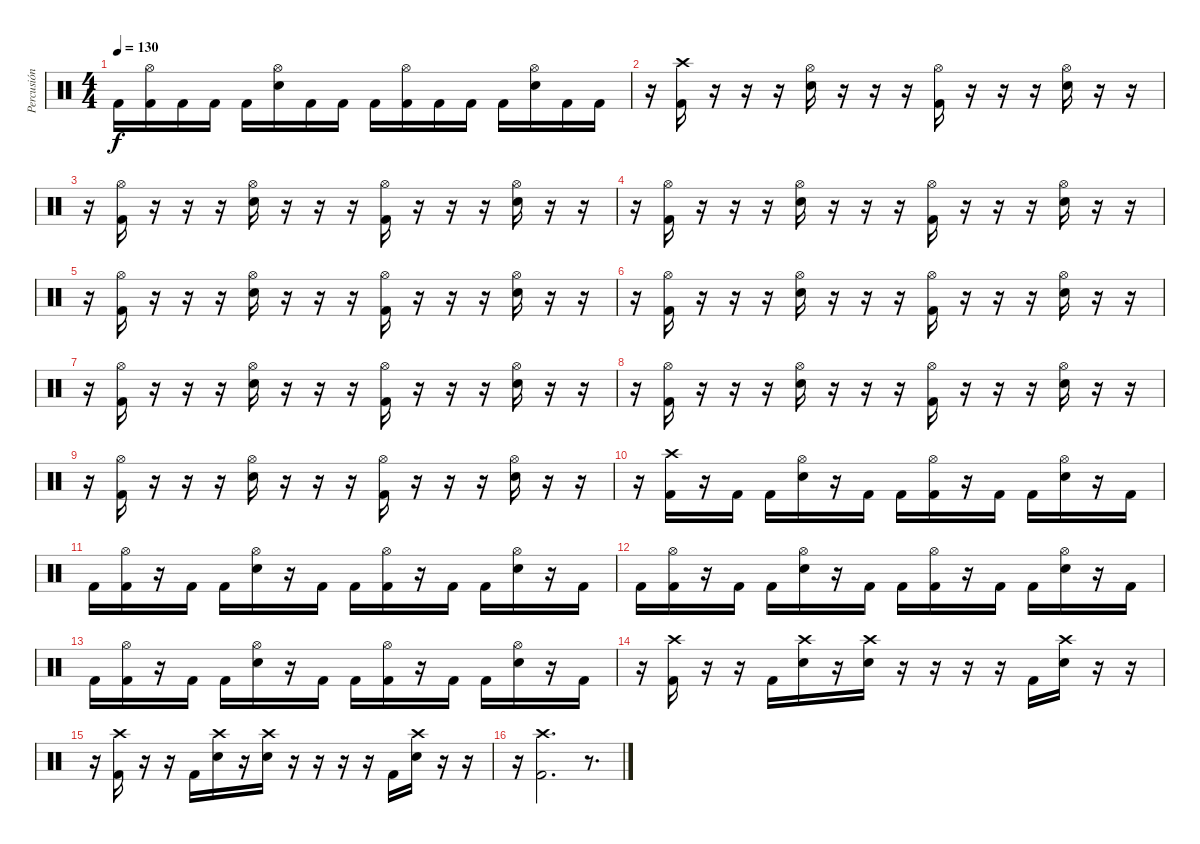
\track ("Percusión (opcional)" "Percusión ") {mute instrument percussion}
\staff {score}
\articulation defaults
\ts (4 4)
\tempo 130
\clef neutral
\ks c "Kick (hit) 2".16{dy f}
("Hi-Hat (open)" "Kick (hit) 2").16 "Kick (hit) 2".16 "Kick (hit) 2".16 "Kick (hit) 2".16 ("Hi-Hat (open)" "Electric Snare (hit)").16 "Kick (hit) 2".16 "Kick (hit) 2".16 "Kick (hit) 2".16 ("Hi-Hat (open)" "Kick (hit) 2").16 "Kick (hit) 2".16 "Kick (hit) 2".16 "Kick (hit) 2".16 ("Hi-Hat (open)" "Electric Snare (hit)").16 "Kick (hit) 2".16 "Kick (hit) 2".16 |
r.16 ("Crash high (hit)" "Kick (hit) 2").16 r.16 r.16 r.16 ("Hi-Hat (open)" "Electric Snare (hit)").16 r.16 r.16 r.16 ("Hi-Hat (open)" "Kick (hit) 2").16 r.16 r.16 r.16 ("Hi-Hat (open)" "Electric Snare (hit)").16 r.16 r.16 |
r.16 ("Hi-Hat (open)" "Kick (hit) 2").16 r.16 r.16 r.16 ("Hi-Hat (open)" "Electric Snare (hit)").16 r.16 r.16 r.16 ("Hi-Hat (open)" "Kick (hit) 2").16 r.16 r.16 r.16 ("Hi-Hat (open)" "Electric Snare (hit)").16 r.16 r.16 |
r.16 ("Hi-Hat (open)" "Kick (hit) 2").16 r.16 r.16 r.16 ("Hi-Hat (open)" "Electric Snare (hit)").16 r.16 r.16 r.16 ("Hi-Hat (open)" "Kick (hit) 2").16 r.16 r.16 r.16 ("Hi-Hat (open)" "Electric Snare (hit)").16 r.16 r.16 |
r.16 ("Hi-Hat (open)" "Kick (hit) 2").16 r.16 r.16 r.16 ("Hi-Hat (open)" "Electric Snare (hit)").16 r.16 r.16 r.16 ("Hi-Hat (open)" "Kick (hit) 2").16 r.16 r.16 r.16 ("Hi-Hat (open)" "Electric Snare (hit)").16 r.16 r.16 |
r.16 ("Hi-Hat (open)" "Kick (hit) 2").16 r.16 r.16 r.16 ("Hi-Hat (open)" "Electric Snare (hit)").16 r.16 r.16 r.16 ("Hi-Hat (open)" "Kick (hit) 2").16 r.16 r.16 r.16 ("Hi-Hat (open)" "Electric Snare (hit)").16 r.16 r.16 |
r.16 ("Hi-Hat (open)" "Kick (hit) 2").16 r.16 r.16 r.16 ("Hi-Hat (open)" "Electric Snare (hit)").16 r.16 r.16 r.16 ("Hi-Hat (open)" "Kick (hit) 2").16 r.16 r.16 r.16 ("Hi-Hat (open)" "Electric Snare (hit)").16 r.16 r.16 |
r.16 ("Hi-Hat (open)" "Kick (hit) 2").16 r.16 r.16 r.16 ("Hi-Hat (open)" "Electric Snare (hit)").16 r.16 r.16 r.16 ("Hi-Hat (open)" "Kick (hit) 2").16 r.16 r.16 r.16 ("Hi-Hat (open)" "Electric Snare (hit)").16 r.16 r.16 |
r.16 ("Hi-Hat (open)" "Kick (hit) 2").16 r.16 r.16 r.16 ("Hi-Hat (open)" "Electric Snare (hit)").16 r.16 r.16 r.16 ("Hi-Hat (open)" "Kick (hit) 2").16 r.16 r.16 r.16 ("Hi-Hat (open)" "Electric Snare (hit)").16 r.16 r.16 |
r.16 ("Crash high (hit)" "Kick (hit) 2").16 r.16 "Kick (hit) 2".16 "Kick (hit) 2".16 ("Hi-Hat (open)" "Electric Snare (hit)").16 r.16 "Kick (hit) 2".16 "Kick (hit) 2".16 ("Hi-Hat (open)" "Kick (hit) 2").16 r.16 "Kick (hit) 2".16 "Kick (hit) 2".16 ("Hi-Hat (open)" "Electric Snare (hit)").16 r.16 "Kick (hit) 2".16 |
"Kick (hit) 2".16 ("Hi-Hat (open)" "Kick (hit) 2").16 r.16 "Kick (hit) 2".16 "Kick (hit) 2".16 ("Hi-Hat (open)" "Electric Snare (hit)").16 r.16 "Kick (hit) 2".16 "Kick (hit) 2".16 ("Hi-Hat (open)" "Kick (hit) 2").16 r.16 "Kick (hit) 2".16 "Kick (hit) 2".16 ("Hi-Hat (open)" "Electric Snare (hit)").16 r.16 "Kick (hit) 2".16 |
"Kick (hit) 2".16 ("Hi-Hat (open)" "Kick (hit) 2").16 r.16 "Kick (hit) 2".16 "Kick (hit) 2".16 ("Hi-Hat (open)" "Electric Snare (hit)").16 r.16 "Kick (hit) 2".16 "Kick (hit) 2".16 ("Hi-Hat (open)" "Kick (hit) 2").16 r.16 "Kick (hit) 2".16 "Kick (hit) 2".16 ("Hi-Hat (open)" "Electric Snare (hit)").16 r.16 "Kick (hit) 2".16 |
"Kick (hit) 2".16 ("Hi-Hat (open)" "Kick (hit) 2").16 r.16 "Kick (hit) 2".16 "Kick (hit) 2".16 ("Hi-Hat (open)" "Electric Snare (hit)").16 r.16 "Kick (hit) 2".16 "Kick (hit) 2".16 ("Hi-Hat (open)" "Kick (hit) 2").16 r.16 "Kick (hit) 2".16 "Kick (hit) 2".16 ("Hi-Hat (open)" "Electric Snare (hit)").16 r.16 "Kick (hit) 2".16 |
r.16 ("Crash high (hit)" "Kick (hit) 2").16 r.16 r.16 "Kick (hit) 2".16 ("Crash high (hit)" "Electric Snare (hit)").16 r.16 ("Crash high (hit)" "Electric Snare (hit)").16 r.16 r.16 r.16 r.16 "Kick (hit) 2".16 ("Crash high (hit)" "Electric Snare (hit)").16 r.16 r.16 |
r.16 ("Crash high (hit)" "Kick (hit) 2").16 r.16 r.16 "Kick (hit) 2".16 ("Crash high (hit)" "Electric Snare (hit)").16 r.16 ("Crash high (hit)" "Electric Snare (hit)").16 r.16 r.16 r.16 r.16 "Kick (hit) 2".16 ("Crash high (hit)" "Electric Snare (hit)").16 r.16 r.16 |
r.16 ("Crash high (hit)" "Kick (hit) 2").2{d} r.8{d}
